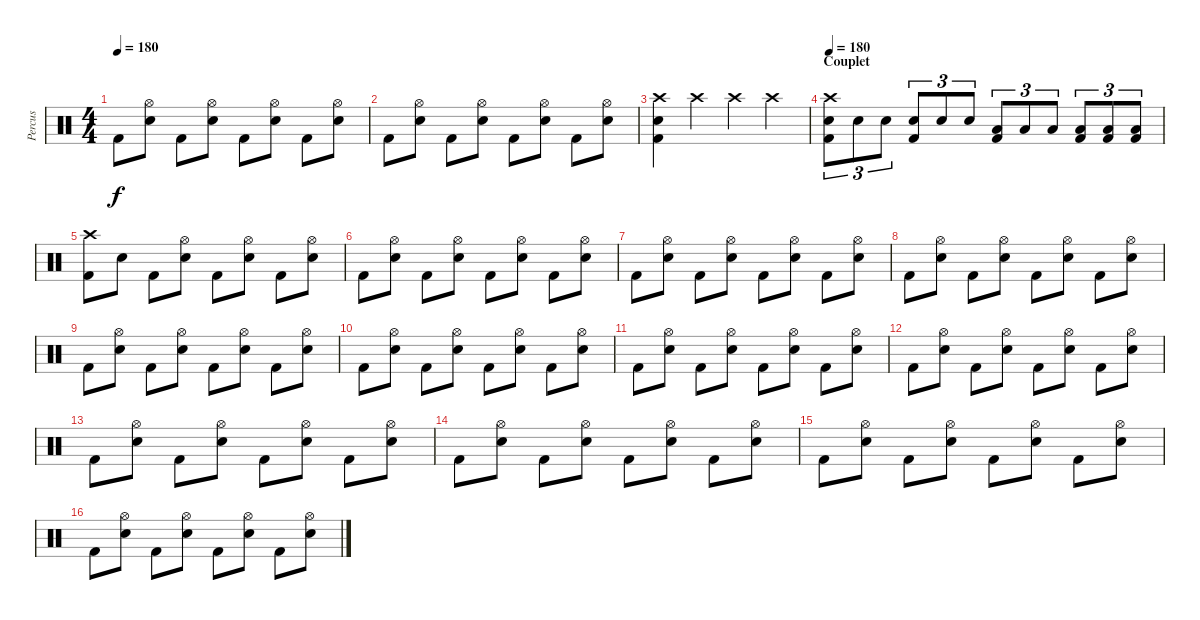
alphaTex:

\track ("Percus" "Percus") {instrument percussion}
\staff {score}
\articulation defaults
\ts (4 4)
\tempo 180
\clef neutral
\ks c "Kick (hit) 2".8{dy f}
("Hi-Hat (open)" "Snare (hit) 2").8 "Kick (hit) 2".8 ("Hi-Hat (open)" "Snare (hit) 2").8 "Kick (hit) 2".8 ("Hi-Hat (open)" "Snare (hit) 2").8 "Kick (hit) 2".8 ("Hi-Hat (open)" "Snare (hit) 2").8 |
"Kick (hit) 2".8 ("Hi-Hat (open)" "Snare (hit) 2").8 "Kick (hit) 2".8 ("Hi-Hat (open)" "Snare (hit) 2").8 "Kick (hit) 2".8 ("Hi-Hat (open)" "Snare (hit) 2").8 "Kick (hit) 2".8 ("Hi-Hat (open)" "Snare (hit) 2").8 |
("Crash high (hit)" "Snare (hit) 2" "Kick (hit) 2").4 "Crash high (hit)".4 "Crash high (hit)".4 "Crash high (hit)".4 |
\section ("" "Couplet")
\tempo 180
("Crash high (hit)" "Snare (hit) 2" "Kick (hit) 2").8{tu (3 2)} "Snare (hit) 2".8{tu (3 2)} "Snare (hit) 2".8{tu (3 2)} ("Snare (hit) 2" "Kick (hit) 2").8{tu (3 2)} "Snare (hit) 2".8{tu (3 2)} "Snare (hit) 2".8{tu (3 2)} ("Low Tom (hit)" "Kick (hit) 2").8{tu (3 2)} "Low Tom (hit)".8{tu (3 2)} "Low Tom (hit)".8{tu (3 2)} ("Low Floor Tom (hit)" "Kick (hit) 2").8{tu (3 2)} ("Low Floor Tom (hit)" "Kick (hit) 2").8{tu (3 2)} ("Low Floor Tom (hit)" "Kick (hit) 2").8{tu (3 2)} |
("Crash high (hit)" "Kick (hit) 2").8 "Snare (hit) 2".8 "Kick (hit) 2".8 ("Hi-Hat (open)" "Snare (hit) 2").8 "Kick (hit) 2".8 ("Hi-Hat (open)" "Snare (hit) 2").8 "Kick (hit) 2".8 ("Hi-Hat (open)" "Snare (hit) 2").8 |
"Kick (hit) 2".8 ("Hi-Hat (open)" "Snare (hit) 2").8 "Kick (hit) 2".8 ("Hi-Hat (open)" "Snare (hit) 2").8 "Kick (hit) 2".8 ("Hi-Hat (open)" "Snare (hit) 2").8 "Kick (hit) 2".8 ("Hi-Hat (open)" "Snare (hit) 2").8 |
"Kick (hit) 2".8 ("Hi-Hat (open)" "Snare (hit) 2").8 "Kick (hit) 2".8 ("Hi-Hat (open)" "Snare (hit) 2").8 "Kick (hit) 2".8 ("Hi-Hat (open)" "Snare (hit) 2").8 "Kick (hit) 2".8 ("Hi-Hat (open)" "Snare (hit) 2").8 |
"Kick (hit) 2".8 ("Hi-Hat (open)" "Snare (hit) 2").8 "Kick (hit) 2".8 ("Hi-Hat (open)" "Snare (hit) 2").8 "Kick (hit) 2".8 ("Hi-Hat (open)" "Snare (hit) 2").8 "Kick (hit) 2".8 ("Hi-Hat (open)" "Snare (hit) 2").8 |
"Kick (hit) 2".8 ("Hi-Hat (open)" "Snare (hit) 2").8 "Kick (hit) 2".8 ("Hi-Hat (open)" "Snare (hit) 2").8 "Kick (hit) 2".8 ("Hi-Hat (open)" "Snare (hit) 2").8 "Kick (hit) 2".8 ("Hi-Hat (open)" "Snare (hit) 2").8 |
"Kick (hit) 2".8 ("Hi-Hat (open)" "Snare (hit) 2").8 "Kick (hit) 2".8 ("Hi-Hat (open)" "Snare (hit) 2").8 "Kick (hit) 2".8 ("Hi-Hat (open)" "Snare (hit) 2").8 "Kick (hit) 2".8 ("Hi-Hat (open)" "Snare (hit) 2").8 |
"Kick (hit) 2".8 ("Hi-Hat (open)" "Snare (hit) 2").8 "Kick (hit) 2".8 ("Hi-Hat (open)" "Snare (hit) 2").8 "Kick (hit) 2".8 ("Hi-Hat (open)" "Snare (hit) 2").8 "Kick (hit) 2".8 ("Hi-Hat (open)" "Snare (hit) 2").8 |
"Kick (hit) 2".8 ("Hi-Hat (open)" "Snare (hit) 2").8 "Kick (hit) 2".8 ("Hi-Hat (open)" "Snare (hit) 2").8 "Kick (hit) 2".8 ("Hi-Hat (open)" "Snare (hit) 2").8 "Kick (hit) 2".8 ("Hi-Hat (open)" "Snare (hit) 2").8 |
"Kick (hit) 2".8 ("Hi-Hat (open)" "Snare (hit) 2").8 "Kick (hit) 2".8 ("Hi-Hat (open)" "Snare (hit) 2").8 "Kick (hit) 2".8 ("Hi-Hat (open)" "Snare (hit) 2").8 "Kick (hit) 2".8 ("Hi-Hat (open)" "Snare (hit) 2").8 |
"Kick (hit) 2".8 ("Hi-Hat (open)" "Snare (hit) 2").8 "Kick (hit) 2".8 ("Hi-Hat (open)" "Snare (hit) 2").8 "Kick (hit) 2".8 ("Hi-Hat (open)" "Snare (hit) 2").8 "Kick (hit) 2".8 ("Hi-Hat (open)" "Snare (hit) 2").8 |
"Kick (hit) 2".8 ("Hi-Hat (open)" "Snare (hit) 2").8 "Kick (hit) 2".8 ("Hi-Hat (open)" "Snare (hit) 2").8 "Kick (hit) 2".8 ("Hi-Hat (open)" "Snare (hit) 2").8 "Kick (hit) 2".8 ("Hi-Hat (open)" "Snare (hit) 2").8 |
"Kick (hit) 2".8 ("Hi-Hat (open)" "Snare (hit) 2").8 "Kick (hit) 2".8 ("Hi-Hat (open)" "Snare (hit) 2").8 "Kick (hit) 2".8 ("Hi-Hat (open)" "Snare (hit) 2").8 "Kick (hit) 2".8 ("Hi-Hat (open)" "Snare (hit) 2").8
